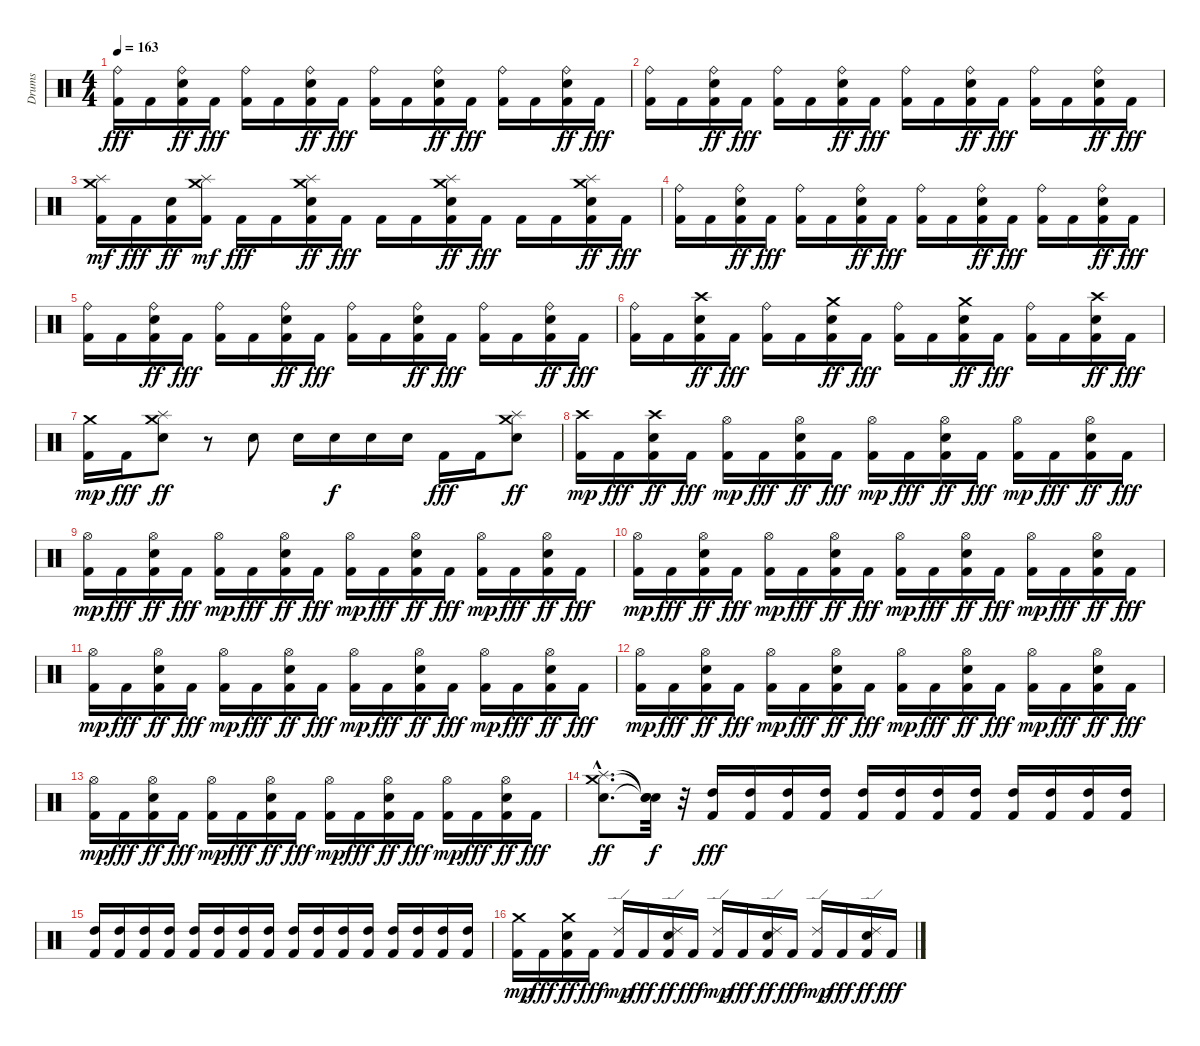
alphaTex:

\track ("Drums" "Drums") {instrument percussion}
\staff {score}
\articulation defaults
\ts (4 4)
\tempo 163
\clef neutral
\ks c
("Ride (bell)" "Kick (hit) 2").16{dy fff} "Kick (hit) 2".16 ("Ride (bell)" "Kick (hit) 2" "Snare (hit) 2").16{dy ff} "Kick (hit) 2".16{dy fff} ("Ride (bell)" "Kick (hit) 2").16 "Kick (hit) 2".16 ("Ride (bell)" "Kick (hit) 2" "Snare (hit) 2").16{dy ff} "Kick (hit) 2".16{dy fff} ("Ride (bell)" "Kick (hit) 2").16 "Kick (hit) 2".16 ("Ride (bell)" "Kick (hit) 2" "Snare (hit) 2").16{dy ff} "Kick (hit) 2".16{dy fff} ("Ride (bell)" "Kick (hit) 2").16 "Kick (hit) 2".16 ("Ride (bell)" "Kick (hit) 2" "Snare (hit) 2").16{dy ff} "Kick (hit) 2".16{dy fff} |
("Ride (bell)" "Kick (hit) 2").16 "Kick (hit) 2".16 ("Ride (bell)" "Kick (hit) 2" "Snare (hit) 2").16{dy ff} "Kick (hit) 2".16{dy fff} ("Ride (bell)" "Kick (hit) 2").16 "Kick (hit) 2".16 ("Ride (bell)" "Kick (hit) 2" "Snare (hit) 2").16{dy ff} "Kick (hit) 2".16{dy fff} ("Ride (bell)" "Kick (hit) 2").16 "Kick (hit) 2".16 ("Ride (bell)" "Kick (hit) 2" "Snare (hit) 2").16{dy ff} "Kick (hit) 2".16{dy fff} ("Ride (bell)" "Kick (hit) 2").16 "Kick (hit) 2".16 ("Ride (bell)" "Kick (hit) 2" "Snare (hit) 2").16{dy ff} "Kick (hit) 2".16{dy fff} |
("Kick (hit) 2" "Crash medium (hit)" "Splash (hit)").16{dy mf} "Kick (hit) 2".16{dy fff} ("Kick (hit) 2" "Snare (hit) 2").16{dy ff} ("Kick (hit) 2" "Crash medium (hit)" "Splash (hit)").16{dy mf} "Kick (hit) 2".16{dy fff} "Kick (hit) 2".16 ("Kick (hit) 2" "Crash medium (hit)" "Splash (hit)" "Snare (hit) 2").16{dy ff} "Kick (hit) 2".16{dy fff} "Kick (hit) 2".16 "Kick (hit) 2".16 ("Kick (hit) 2" "Crash medium (hit)" "Splash (hit)" "Snare (hit) 2").16{dy ff} "Kick (hit) 2".16{dy fff} "Kick (hit) 2".16 "Kick (hit) 2".16 ("Kick (hit) 2" "Crash medium (hit)" "Splash (hit)" "Snare (hit) 2").16{dy ff} "Kick (hit) 2".16{dy fff} |
("Ride (bell)" "Kick (hit) 2").16 "Kick (hit) 2".16 ("Ride (bell)" "Kick (hit) 2" "Snare (hit) 2").16{dy ff} "Kick (hit) 2".16{dy fff} ("Ride (bell)" "Kick (hit) 2").16 "Kick (hit) 2".16 ("Ride (bell)" "Kick (hit) 2" "Snare (hit) 2").16{dy ff} "Kick (hit) 2".16{dy fff} ("Ride (bell)" "Kick (hit) 2").16 "Kick (hit) 2".16 ("Ride (bell)" "Kick (hit) 2" "Snare (hit) 2").16{dy ff} "Kick (hit) 2".16{dy fff} ("Ride (bell)" "Kick (hit) 2").16 "Kick (hit) 2".16 ("Ride (bell)" "Kick (hit) 2" "Snare (hit) 2").16{dy ff} "Kick (hit) 2".16{dy fff} |
("Ride (bell)" "Kick (hit) 2").16 "Kick (hit) 2".16 ("Ride (bell)" "Kick (hit) 2" "Snare (hit) 2").16{dy ff} "Kick (hit) 2".16{dy fff} ("Ride (bell)" "Kick (hit) 2").16 "Kick (hit) 2".16 ("Ride (bell)" "Kick (hit) 2" "Snare (hit) 2").16{dy ff} "Kick (hit) 2".16{dy fff} ("Ride (bell)" "Kick (hit) 2").16 "Kick (hit) 2".16 ("Ride (bell)" "Kick (hit) 2" "Snare (hit) 2").16{dy ff} "Kick (hit) 2".16{dy fff} ("Ride (bell)" "Kick (hit) 2").16 "Kick (hit) 2".16 ("Ride (bell)" "Kick (hit) 2" "Snare (hit) 2").16{dy ff} "Kick (hit) 2".16{dy fff} |
("Ride (bell)" "Kick (hit) 2").16 "Kick (hit) 2".16 ("Kick (hit) 2" "Crash high (hit)" "Snare (hit) 2").16{dy ff} "Kick (hit) 2".16{dy fff} ("Ride (bell)" "Kick (hit) 2").16 "Kick (hit) 2".16 ("Kick (hit) 2" "Crash medium (hit)" "Snare (hit) 2").16{dy ff} "Kick (hit) 2".16{dy fff} ("Ride (bell)" "Kick (hit) 2").16 "Kick (hit) 2".16 ("Kick (hit) 2" "Crash medium (hit)" "Snare (hit) 2").16{dy ff} "Kick (hit) 2".16{dy fff} ("Ride (bell)" "Kick (hit) 2").16 "Kick (hit) 2".16 ("Kick (hit) 2" "Crash high (hit)" "Snare (hit) 2").16{dy ff} "Kick (hit) 2".16{dy fff} |
("Kick (hit) 2" "Crash medium (hit)").16{dy mp} "Kick (hit) 2".16{dy fff} ("Splash (hit)" "Crash medium (hit)" "Snare (hit) 2").8{dy ff} r.8 "Snare (hit) 2".8 "Snare (hit) 2".16 "Snare (hit) 2".16{dy f} "Snare (hit) 2".16 "Snare (hit) 2".16 "Kick (hit) 2".16{dy fff} "Kick (hit) 2".16 ("Splash (hit)" "Crash medium (hit)" "Snare (hit) 2").8{dy ff} |
("Kick (hit) 2" "Crash high (hit)").16{dy mp} "Kick (hit) 2".16{dy fff} ("Kick (hit) 2" "Crash high (hit)" "Snare (hit) 2").16{dy ff} "Kick (hit) 2".16{dy fff} ("Kick (hit) 2" "Hi-Hat (open)").16{dy mp} "Kick (hit) 2".16{dy fff} ("Kick (hit) 2" "Hi-Hat (open)" "Snare (hit) 2").16{dy ff} "Kick (hit) 2".16{dy fff} ("Kick (hit) 2" "Hi-Hat (open)").16{dy mp} "Kick (hit) 2".16{dy fff} ("Kick (hit) 2" "Hi-Hat (open)" "Snare (hit) 2").16{dy ff} "Kick (hit) 2".16{dy fff} ("Kick (hit) 2" "Hi-Hat (open)").16{dy mp} "Kick (hit) 2".16{dy fff} ("Kick (hit) 2" "Hi-Hat (open)" "Snare (hit) 2").16{dy ff} "Kick (hit) 2".16{dy fff} |
("Kick (hit) 2" "Hi-Hat (open)").16{dy mp} "Kick (hit) 2".16{dy fff} ("Kick (hit) 2" "Hi-Hat (open)" "Snare (hit) 2").16{dy ff} "Kick (hit) 2".16{dy fff} ("Kick (hit) 2" "Hi-Hat (open)").16{dy mp} "Kick (hit) 2".16{dy fff} ("Kick (hit) 2" "Hi-Hat (open)" "Snare (hit) 2").16{dy ff} "Kick (hit) 2".16{dy fff} ("Kick (hit) 2" "Hi-Hat (open)").16{dy mp} "Kick (hit) 2".16{dy fff} ("Kick (hit) 2" "Hi-Hat (open)" "Snare (hit) 2").16{dy ff} "Kick (hit) 2".16{dy fff} ("Kick (hit) 2" "Hi-Hat (open)").16{dy mp} "Kick (hit) 2".16{dy fff} ("Kick (hit) 2" "Hi-Hat (open)" "Snare (hit) 2").16{dy ff} "Kick (hit) 2".16{dy fff} |
("Kick (hit) 2" "Hi-Hat (open)").16{dy mp} "Kick (hit) 2".16{dy fff} ("Kick (hit) 2" "Hi-Hat (open)" "Snare (hit) 2").16{dy ff} "Kick (hit) 2".16{dy fff} ("Kick (hit) 2" "Hi-Hat (open)").16{dy mp} "Kick (hit) 2".16{dy fff} ("Kick (hit) 2" "Hi-Hat (open)" "Snare (hit) 2").16{dy ff} "Kick (hit) 2".16{dy fff} ("Kick (hit) 2" "Hi-Hat (open)").16{dy mp} "Kick (hit) 2".16{dy fff} ("Kick (hit) 2" "Hi-Hat (open)" "Snare (hit) 2").16{dy ff} "Kick (hit) 2".16{dy fff} ("Kick (hit) 2" "Hi-Hat (open)").16{dy mp} "Kick (hit) 2".16{dy fff} ("Kick (hit) 2" "Hi-Hat (open)" "Snare (hit) 2").16{dy ff} "Kick (hit) 2".16{dy fff} |
("Kick (hit) 2" "Hi-Hat (open)").16{dy mp} "Kick (hit) 2".16{dy fff} ("Kick (hit) 2" "Hi-Hat (open)" "Snare (hit) 2").16{dy ff} "Kick (hit) 2".16{dy fff} ("Kick (hit) 2" "Hi-Hat (open)").16{dy mp} "Kick (hit) 2".16{dy fff} ("Kick (hit) 2" "Hi-Hat (open)" "Snare (hit) 2").16{dy ff} "Kick (hit) 2".16{dy fff} ("Kick (hit) 2" "Hi-Hat (open)").16{dy mp} "Kick (hit) 2".16{dy fff} ("Kick (hit) 2" "Hi-Hat (open)" "Snare (hit) 2").16{dy ff} "Kick (hit) 2".16{dy fff} ("Kick (hit) 2" "Hi-Hat (open)").16{dy mp} "Kick (hit) 2".16{dy fff} ("Kick (hit) 2" "Hi-Hat (open)" "Snare (hit) 2").16{dy ff} "Kick (hit) 2".16{dy fff} |
("Kick (hit) 2" "Hi-Hat (open)").16{dy mp} "Kick (hit) 2".16{dy fff} ("Kick (hit) 2" "Hi-Hat (open)" "Snare (hit) 2").16{dy ff} "Kick (hit) 2".16{dy fff} ("Kick (hit) 2" "Hi-Hat (open)").16{dy mp} "Kick (hit) 2".16{dy fff} ("Kick (hit) 2" "Hi-Hat (open)" "Snare (hit) 2").16{dy ff} "Kick (hit) 2".16{dy fff} ("Kick (hit) 2" "Hi-Hat (open)").16{dy mp} "Kick (hit) 2".16{dy fff} ("Kick (hit) 2" "Hi-Hat (open)" "Snare (hit) 2").16{dy ff} "Kick (hit) 2".16{dy fff} ("Kick (hit) 2" "Hi-Hat (open)").16{dy mp} "Kick (hit) 2".16{dy fff} ("Kick (hit) 2" "Hi-Hat (open)" "Snare (hit) 2").16{dy ff} "Kick (hit) 2".16{dy fff} |
("Kick (hit) 2" "Hi-Hat (open)").16{dy mp} "Kick (hit) 2".16{dy fff} ("Kick (hit) 2" "Hi-Hat (open)" "Snare (hit) 2").16{dy ff} "Kick (hit) 2".16{dy fff} ("Kick (hit) 2" "Hi-Hat (open)").16{dy mp} "Kick (hit) 2".16{dy fff} ("Kick (hit) 2" "Hi-Hat (open)" "Snare (hit) 2").16{dy ff} "Kick (hit) 2".16{dy fff} ("Kick (hit) 2" "Hi-Hat (open)").16{dy mp} "Kick (hit) 2".16{dy fff} ("Kick (hit) 2" "Hi-Hat (open)" "Snare (hit) 2").16{dy ff} "Kick (hit) 2".16{dy fff} ("Kick (hit) 2" "Hi-Hat (open)").16{dy mp} "Kick (hit) 2".16{dy fff} ("Kick (hit) 2" "Hi-Hat (open)" "Snare (hit) 2").16{dy ff} "Kick (hit) 2".16{dy fff} |
("Crash medium (hit)"{hac} "Splash (hit)"{hac} "Snare (hit) 2"{hac}).8{d dy ff} ("Snare (hit)"{t} "Snare (hit)"{t} "Snare (hit)"{t}).32{dy f} r.32 ("High Tom (hit)" "Kick (hit) 2").16{dy fff} ("High Tom (hit)" "Kick (hit) 2").16 ("High Tom (hit)" "Kick (hit) 2").16 ("High Tom (hit)" "Kick (hit) 2").16 ("High Tom (hit)" "Kick (hit) 2").16 ("High Tom (hit)" "Kick (hit) 2").16 ("High Tom (hit)" "Kick (hit) 2").16 ("High Tom (hit)" "Kick (hit) 2").16 ("High Tom (hit)" "Kick (hit) 2").16 ("High Tom (hit)" "Kick (hit) 2").16 ("High Tom (hit)" "Kick (hit) 2").16 ("High Tom (hit)" "Kick (hit) 2").16 |
("High Tom (hit)" "Kick (hit) 2").16 ("High Tom (hit)" "Kick (hit) 2").16 ("High Tom (hit)" "Kick (hit) 2").16 ("High Tom (hit)" "Kick (hit) 2").16 ("High Tom (hit)" "Kick (hit) 2").16 ("High Tom (hit)" "Kick (hit) 2").16 ("High Tom (hit)" "Kick (hit) 2").16 ("High Tom (hit)" "Kick (hit) 2").16 ("High Tom (hit)" "Kick (hit) 2").16 ("High Tom (hit)" "Kick (hit) 2").16 ("High Tom (hit)" "Kick (hit) 2").16 ("High Tom (hit)" "Kick (hit) 2").16 ("High Tom (hit)" "Kick (hit) 2").16 ("High Tom (hit)" "Kick (hit) 2").16 ("High Tom (hit)" "Kick (hit) 2").16 ("High Tom (hit)" "Kick (hit) 2").16 |
("Kick (hit) 2" "Crash medium (hit)").16{dy mp} "Kick (hit) 2".16{dy fff} ("Kick (hit) 2" "Crash medium (hit)" "Snare (hit) 2").16{dy ff} "Kick (hit) 2".16{dy fff} ("Kick (hit) 2" "Ride (edge) 2").16{dy mp} "Kick (hit) 2".16{dy fff} ("Kick (hit) 2" "Ride (edge) 2" "Snare (hit) 2").16{dy ff} "Kick (hit) 2".16{dy fff} ("Kick (hit) 2" "Ride (edge) 2").16{dy mp} "Kick (hit) 2".16{dy fff} ("Kick (hit) 2" "Ride (edge) 2" "Snare (hit) 2").16{dy ff} "Kick (hit) 2".16{dy fff} ("Kick (hit) 2" "Ride (edge) 2").16{dy mp} "Kick (hit) 2".16{dy fff} ("Kick (hit) 2" "Ride (edge) 2" "Snare (hit) 2").16{dy ff} "Kick (hit) 2".16{dy fff}
